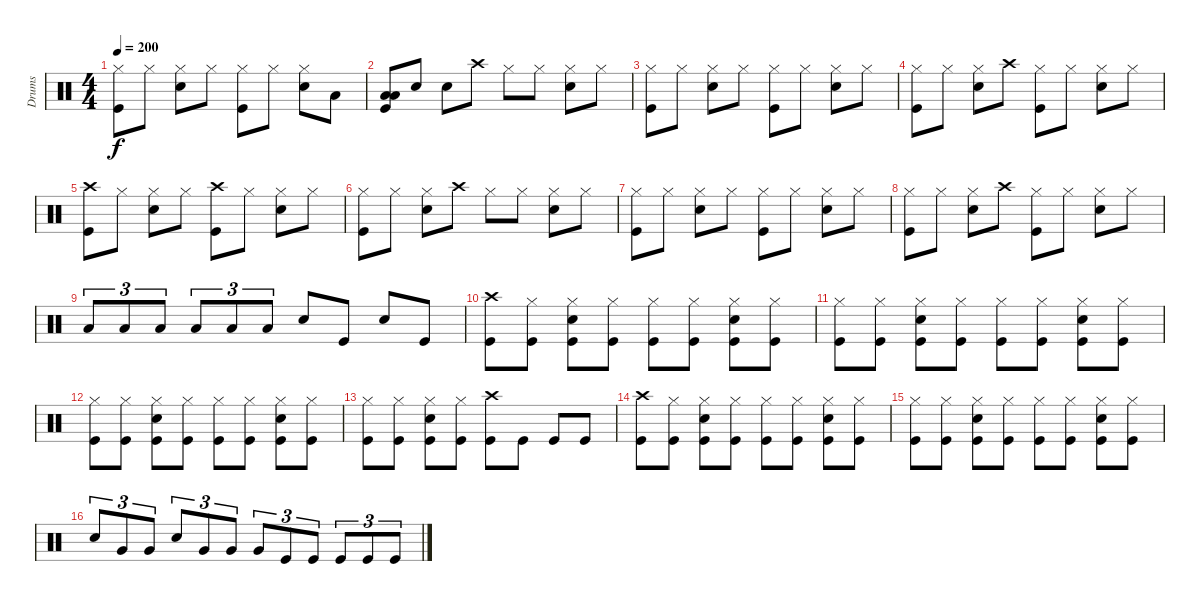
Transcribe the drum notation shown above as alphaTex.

\track ("Drums" "Drums") {instrument percussion}
\staff {score}
\articulation defaults
\ts (4 4)
\tempo 200
\clef neutral
\ks c
("Hi-Hat (closed)" "Kick (hit)").8{dy f} "Hi-Hat (closed)".8 ("Hi-Hat (closed)" "Snare (hit) 2").8 "Hi-Hat (closed)".8 ("Hi-Hat (closed)" "Kick (hit)").8 "Hi-Hat (closed)".8 ("Hi-Hat (closed)" "Snare (hit) 2").8 "Low Floor Tom (hit)".8 |
("Low Floor Tom (hit)" "Low Floor Tom (hit)" "Kick (hit)").8 "Snare (hit) 2".8 "Snare (hit) 2".8 "Crash high (hit)".8 "Hi-Hat (closed)".8 "Hi-Hat (closed)".8 ("Hi-Hat (closed)" "Snare (hit) 2").8 "Hi-Hat (closed)".8 |
("Hi-Hat (closed)" "Kick (hit)").8 "Hi-Hat (closed)".8 ("Hi-Hat (closed)" "Snare (hit) 2").8 "Hi-Hat (closed)".8 ("Hi-Hat (closed)" "Kick (hit)").8 "Hi-Hat (closed)".8 ("Hi-Hat (closed)" "Snare (hit) 2").8 "Hi-Hat (closed)".8 |
("Hi-Hat (closed)" "Kick (hit)").8 "Hi-Hat (closed)".8 ("Hi-Hat (closed)" "Snare (hit) 2").8 "Crash high (hit)".8 ("Hi-Hat (closed)" "Kick (hit)").8 "Hi-Hat (closed)".8 ("Hi-Hat (closed)" "Snare (hit) 2").8 "Hi-Hat (closed)".8 |
("Crash high (hit)" "Kick (hit)").8 "Hi-Hat (closed)".8 ("Hi-Hat (closed)" "Snare (hit) 2").8 "Hi-Hat (closed)".8 ("Crash high (hit)" "Kick (hit)").8 "Hi-Hat (closed)".8 ("Hi-Hat (closed)" "Snare (hit) 2").8 "Hi-Hat (closed)".8 |
("Hi-Hat (closed)" "Kick (hit)").8 "Hi-Hat (closed)".8 ("Hi-Hat (closed)" "Snare (hit) 2").8 "Crash high (hit)".8 "Hi-Hat (closed)".8 "Hi-Hat (closed)".8 ("Hi-Hat (closed)" "Snare (hit) 2").8 "Hi-Hat (closed)".8 |
("Hi-Hat (closed)" "Kick (hit)").8 "Hi-Hat (closed)".8 ("Hi-Hat (closed)" "Snare (hit) 2").8 "Hi-Hat (closed)".8 ("Hi-Hat (closed)" "Kick (hit)").8 "Hi-Hat (closed)".8 ("Hi-Hat (closed)" "Snare (hit) 2").8 "Hi-Hat (closed)".8 |
("Hi-Hat (closed)" "Kick (hit)").8 "Hi-Hat (closed)".8 ("Hi-Hat (closed)" "Snare (hit) 2").8 "Crash high (hit)".8 ("Hi-Hat (closed)" "Kick (hit)").8 "Hi-Hat (closed)".8 ("Hi-Hat (closed)" "Snare (hit) 2").8 "Hi-Hat (closed)".8 |
"Low Tom (hit)".8{tu (3 2)} "Low Tom (hit)".8{tu (3 2)} "Low Tom (hit)".8{tu (3 2)} "Low Tom (hit)".8{tu (3 2)} "Low Tom (hit)".8{tu (3 2)} "Low Tom (hit)".8{tu (3 2)} "Snare (hit) 2".8 "Kick (hit)".8 "Snare (hit) 2".8 "Kick (hit)".8 |
("Crash high (hit)" "Kick (hit)").8 ("Hi-Hat (closed)" "Kick (hit)").8 ("Hi-Hat (closed)" "Snare (hit) 2" "Kick (hit)").8 ("Hi-Hat (closed)" "Kick (hit)").8 ("Hi-Hat (closed)" "Kick (hit)").8 ("Hi-Hat (closed)" "Kick (hit)").8 ("Hi-Hat (closed)" "Snare (hit) 2" "Kick (hit)").8 ("Hi-Hat (closed)" "Kick (hit)").8 |
("Hi-Hat (closed)" "Kick (hit)").8 ("Hi-Hat (closed)" "Kick (hit)").8 ("Hi-Hat (closed)" "Snare (hit) 2" "Kick (hit)").8 ("Hi-Hat (closed)" "Kick (hit)").8 ("Hi-Hat (closed)" "Kick (hit)").8 ("Hi-Hat (closed)" "Kick (hit)").8 ("Hi-Hat (closed)" "Snare (hit) 2" "Kick (hit)").8 ("Hi-Hat (closed)" "Kick (hit)").8 |
("Hi-Hat (closed)" "Kick (hit)").8 ("Hi-Hat (closed)" "Kick (hit)").8 ("Hi-Hat (closed)" "Snare (hit) 2" "Kick (hit)").8 ("Hi-Hat (closed)" "Kick (hit)").8 ("Hi-Hat (closed)" "Kick (hit)").8 ("Hi-Hat (closed)" "Kick (hit)").8 ("Hi-Hat (closed)" "Snare (hit) 2" "Kick (hit)").8 ("Hi-Hat (closed)" "Kick (hit)").8 |
("Hi-Hat (closed)" "Kick (hit)").8 ("Hi-Hat (closed)" "Kick (hit)").8 ("Hi-Hat (closed)" "Snare (hit) 2" "Kick (hit)").8 ("Hi-Hat (closed)" "Kick (hit)").8 ("Crash high (hit)" "Kick (hit)").8 "Kick (hit)".8 "Kick (hit)".8 "Kick (hit)".8 |
("Crash high (hit)" "Kick (hit)").8 ("Hi-Hat (closed)" "Kick (hit)").8 ("Hi-Hat (closed)" "Snare (hit) 2" "Kick (hit)").8 ("Hi-Hat (closed)" "Kick (hit)").8 ("Hi-Hat (closed)" "Kick (hit)").8 ("Hi-Hat (closed)" "Kick (hit)").8 ("Hi-Hat (closed)" "Snare (hit) 2" "Kick (hit)").8 ("Hi-Hat (closed)" "Kick (hit)").8 |
("Hi-Hat (closed)" "Kick (hit)").8 ("Hi-Hat (closed)" "Kick (hit)").8 ("Hi-Hat (closed)" "Snare (hit) 2" "Kick (hit)").8 ("Hi-Hat (closed)" "Kick (hit)").8 ("Hi-Hat (closed)" "Kick (hit)").8 ("Hi-Hat (closed)" "Kick (hit)").8 ("Hi-Hat (closed)" "Snare (hit) 2" "Kick (hit)").8 ("Hi-Hat (closed)" "Kick (hit)").8 |
"Snare (hit) 2".8{tu (3 2)} "Very Low Tom (hit)".8{tu (3 2)} "Very Low Tom (hit)".8{tu (3 2)} "Snare (hit) 2".8{tu (3 2)} "Very Low Tom (hit)".8{tu (3 2)} "Very Low Tom (hit)".8{tu (3 2)} "Very Low Tom (hit)".8{tu (3 2)} "Kick (hit)".8{tu (3 2)} "Kick (hit)".8{tu (3 2)} "Kick (hit)".8{tu (3 2)} "Kick (hit)".8{tu (3 2)} "Kick (hit)".8{tu (3 2)}
